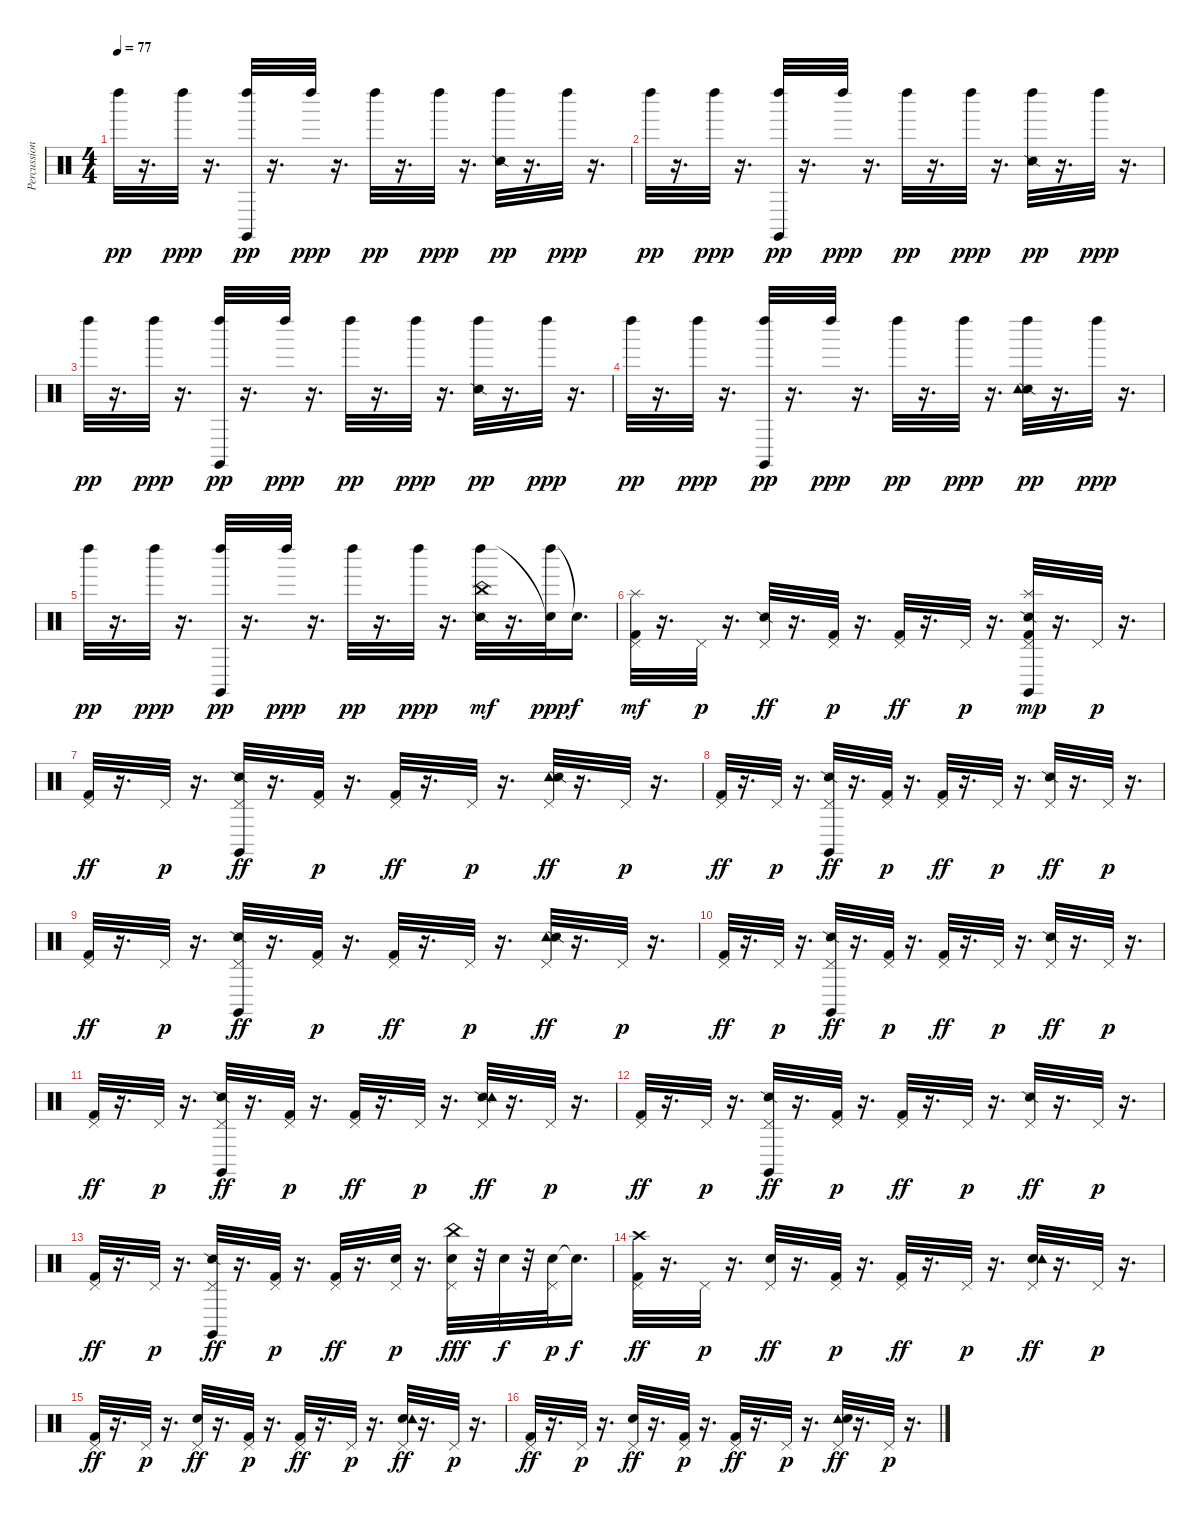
\track ("Percussion" "Percussion") {instrument percussion}
\staff {score}
\articulation defaults
\ts (4 4)
\tempo 77
\clef neutral
\ks c "Left Maraca (hit)".32{dy pp}
r.16{d} "Left Maraca (hit)".32{dy ppp} r.16{d} ("Left Maraca (hit)" "Claves (hit)").32{dy pp} r.16{d} "Left Maraca (hit)".32{dy ppp} r.16{d} "Left Maraca (hit)".32{dy pp} r.16{d} "Left Maraca (hit)".32{dy ppp} r.16{d} ("Left Maraca (hit)" "Snare (side stick) 2").32{dy pp} r.16{d} "Left Maraca (hit)".32{dy ppp} r.16{d} |
"Left Maraca (hit)".32{dy pp} r.16{d} "Left Maraca (hit)".32{dy ppp} r.16{d} ("Claves (hit)" "Left Maraca (hit)").32{dy pp} r.16{d} "Left Maraca (hit)".32{dy ppp} r.16{d} "Left Maraca (hit)".32{dy pp} r.16{d} "Left Maraca (hit)".32{dy ppp} r.16{d} ("Snare (side stick) 2" "Left Maraca (hit)").32{dy pp} r.16{d} "Left Maraca (hit)".32{dy ppp} r.16{d} |
"Left Maraca (hit)".32{dy pp} r.16{d} "Left Maraca (hit)".32{dy ppp} r.16{d} ("Claves (hit)" "Left Maraca (hit)").32{dy pp} r.16{d} "Left Maraca (hit)".32{dy ppp} r.16{d} "Left Maraca (hit)".32{dy pp} r.16{d} "Left Maraca (hit)".32{dy ppp} r.16{d} ("Left Maraca (hit)" "Snare (side stick) 2").32{dy pp} r.16{d} "Left Maraca (hit)".32{dy ppp} r.16{d} |
"Left Maraca (hit)".32{dy pp} r.16{d} "Left Maraca (hit)".32{dy ppp} r.16{d} ("Left Maraca (hit)" "Claves (hit)").32{dy pp} r.16{d} "Left Maraca (hit)".32{dy ppp} r.16{d} "Left Maraca (hit)".32{dy pp} r.16{d} "Left Maraca (hit)".32{dy ppp} r.16{d} ("Snare (side stick) 2" "Tambourine (hit)" "Left Maraca (hit)").32{dy pp} r.16{d} "Left Maraca (hit)".32{dy ppp} r.16{d} |
"Left Maraca (hit)".32{dy pp} r.16{d} "Left Maraca (hit)".32{dy ppp} r.16{d} ("Claves (hit)" "Left Maraca (hit)").32{dy pp} r.16{d} "Left Maraca (hit)".32{dy ppp} r.16{d} "Left Maraca (hit)".32{dy pp} r.16{d} "Left Maraca (hit)".32{dy ppp} r.16{d} ("Snare (side stick) 2" "Left Maraca (hit)" "China (hit)").32{dy mf} r.16{d} ("Left Maraca (hit)" "Snare (hit)"{t}).32{dy ppp} "Snare (hit)"{t}.16{d dy f} |
("Kick (hit) 2" "Pedal Hi-Hat (hit)" "Splash (hit)").32{dy mf} r.16{d} "Pedal Hi-Hat (hit)".32{dy p} r.16{d} ("Snare (side stick) 2" "Pedal Hi-Hat (hit)").32{dy ff} r.16{d} ("Kick (hit) 2" "Pedal Hi-Hat (hit)").32{dy p} r.16{d} ("Kick (hit) 2" "Pedal Hi-Hat (hit)").32{dy ff} r.16{d} "Pedal Hi-Hat (hit)".32{dy p} r.16{d} ("Snare (side stick) 2" "Pedal Hi-Hat (hit)" "Splash (hit)" "Claves (hit)" "Kick (hit) 2").32{dy mp} r.16{d} "Pedal Hi-Hat (hit)".32{dy p} r.16{d} |
("Kick (hit) 2" "Pedal Hi-Hat (hit)").32{dy ff} r.16{d} "Pedal Hi-Hat (hit)".32{dy p} r.16{d} ("Claves (hit)" "Snare (side stick) 2" "Pedal Hi-Hat (hit)").32{dy ff} r.16{d} ("Kick (hit) 2" "Pedal Hi-Hat (hit)").32{dy p} r.16{d} ("Kick (hit) 2" "Pedal Hi-Hat (hit)").32{dy ff} r.16{d} "Pedal Hi-Hat (hit)".32{dy p} r.16{d} ("Tambourine (hit)" "Snare (side stick) 2" "Pedal Hi-Hat (hit)").32{dy ff} r.16{d} "Pedal Hi-Hat (hit)".32{dy p} r.16{d} |
("Kick (hit) 2" "Pedal Hi-Hat (hit)").32{dy ff} r.16{d} "Pedal Hi-Hat (hit)".32{dy p} r.16{d} ("Snare (side stick) 2" "Claves (hit)" "Pedal Hi-Hat (hit)").32{dy ff} r.16{d} ("Kick (hit) 2" "Pedal Hi-Hat (hit)").32{dy p} r.16{d} ("Kick (hit) 2" "Pedal Hi-Hat (hit)").32{dy ff} r.16{d} "Pedal Hi-Hat (hit)".32{dy p} r.16{d} ("Snare (side stick) 2" "Pedal Hi-Hat (hit)").32{dy ff} r.16{d} "Pedal Hi-Hat (hit)".32{dy p} r.16{d} |
("Kick (hit) 2" "Pedal Hi-Hat (hit)").32{dy ff} r.16{d} "Pedal Hi-Hat (hit)".32{dy p} r.16{d} ("Claves (hit)" "Snare (side stick) 2" "Pedal Hi-Hat (hit)").32{dy ff} r.16{d} ("Kick (hit) 2" "Pedal Hi-Hat (hit)").32{dy p} r.16{d} ("Kick (hit) 2" "Pedal Hi-Hat (hit)").32{dy ff} r.16{d} "Pedal Hi-Hat (hit)".32{dy p} r.16{d} ("Tambourine (hit)" "Snare (side stick) 2" "Pedal Hi-Hat (hit)").32{dy ff} r.16{d} "Pedal Hi-Hat (hit)".32{dy p} r.16{d} |
("Kick (hit) 2" "Pedal Hi-Hat (hit)").32{dy ff} r.16{d} "Pedal Hi-Hat (hit)".32{dy p} r.16{d} ("Claves (hit)" "Snare (side stick) 2" "Pedal Hi-Hat (hit)").32{dy ff} r.16{d} ("Kick (hit) 2" "Pedal Hi-Hat (hit)").32{dy p} r.16{d} ("Kick (hit) 2" "Pedal Hi-Hat (hit)").32{dy ff} r.16{d} "Pedal Hi-Hat (hit)".32{dy p} r.16{d} ("Snare (side stick) 2" "Pedal Hi-Hat (hit)").32{dy ff} r.16{d} "Pedal Hi-Hat (hit)".32{dy p} r.16{d} |
("Kick (hit) 2" "Pedal Hi-Hat (hit)").32{dy ff} r.16{d} "Pedal Hi-Hat (hit)".32{dy p} r.16{d} ("Claves (hit)" "Snare (side stick) 2" "Pedal Hi-Hat (hit)").32{dy ff} r.16{d} ("Kick (hit) 2" "Pedal Hi-Hat (hit)").32{dy p} r.16{d} ("Kick (hit) 2" "Pedal Hi-Hat (hit)").32{dy ff} r.16{d} "Pedal Hi-Hat (hit)".32{dy p} r.16{d} ("Snare (side stick) 2" "Tambourine (hit)" "Pedal Hi-Hat (hit)").32{dy ff} r.16{d} "Pedal Hi-Hat (hit)".32{dy p} r.16{d} |
("Kick (hit) 2" "Pedal Hi-Hat (hit)").32{dy ff} r.16{d} "Pedal Hi-Hat (hit)".32{dy p} r.16{d} ("Claves (hit)" "Snare (side stick) 2" "Pedal Hi-Hat (hit)").32{dy ff} r.16{d} ("Kick (hit) 2" "Pedal Hi-Hat (hit)").32{dy p} r.16{d} ("Kick (hit) 2" "Pedal Hi-Hat (hit)").32{dy ff} r.16{d} "Pedal Hi-Hat (hit)".32{dy p} r.16{d} ("Snare (side stick) 2" "Pedal Hi-Hat (hit)").32{dy ff} r.16{d} "Pedal Hi-Hat (hit)".32{dy p} r.16{d} |
("Kick (hit) 2" "Pedal Hi-Hat (hit)").32{dy ff} r.16{d} "Pedal Hi-Hat (hit)".32{dy p} r.16{d} ("Snare (side stick) 2" "Claves (hit)" "Pedal Hi-Hat (hit)").32{dy ff} r.16{d} ("Kick (hit) 2" "Pedal Hi-Hat (hit)").32{dy p} r.16{d} ("Kick (hit) 2" "Pedal Hi-Hat (hit)").32{dy ff} r.16{d} ("Electric Snare (hit)" "Pedal Hi-Hat (hit)").32{dy p} r.16{d} ("Electric Snare (hit)" "Pedal Hi-Hat (hit)" "China (hit)").32{dy fff} r.32 "Electric Snare (hit)".32{dy f} r.32 ("Electric Snare (hit)" "Pedal Hi-Hat (hit)").32{dy p} "Snare (hit)"{t}.16{d dy f} |
("Kick (hit) 2" "Crash high (hit)" "Pedal Hi-Hat (hit)").32{dy ff} r.16{d} "Pedal Hi-Hat (hit)".32{dy p} r.16{d} ("Electric Snare (hit)" "Pedal Hi-Hat (hit)").32{dy ff} r.16{d} ("Kick (hit) 2" "Pedal Hi-Hat (hit)").32{dy p} r.16{d} ("Kick (hit) 2" "Pedal Hi-Hat (hit)").32{dy ff} r.16{d} "Pedal Hi-Hat (hit)".32{dy p} r.16{d} ("Electric Snare (hit)" "Tambourine (hit)" "Pedal Hi-Hat (hit)").32{dy ff} r.16{d} "Pedal Hi-Hat (hit)".32{dy p} r.16{d} |
("Kick (hit) 2" "Pedal Hi-Hat (hit)").32{dy ff} r.16{d} "Pedal Hi-Hat (hit)".32{dy p} r.16{d} ("Electric Snare (hit)" "Pedal Hi-Hat (hit)").32{dy ff} r.16{d} ("Kick (hit) 2" "Pedal Hi-Hat (hit)").32{dy p} r.16{d} ("Kick (hit) 2" "Pedal Hi-Hat (hit)").32{dy ff} r.16{d} "Pedal Hi-Hat (hit)".32{dy p} r.16{d} ("Electric Snare (hit)" "Tambourine (hit)" "Pedal Hi-Hat (hit)").32{dy ff} r.16{d} "Pedal Hi-Hat (hit)".32{dy p} r.16{d} |
("Kick (hit) 2" "Pedal Hi-Hat (hit)").32{dy ff} r.16{d} "Pedal Hi-Hat (hit)".32{dy p} r.16{d} ("Electric Snare (hit)" "Pedal Hi-Hat (hit)").32{dy ff} r.16{d} ("Kick (hit) 2" "Pedal Hi-Hat (hit)").32{dy p} r.16{d} ("Kick (hit) 2" "Pedal Hi-Hat (hit)").32{dy ff} r.16{d} "Pedal Hi-Hat (hit)".32{dy p} r.16{d} ("Tambourine (hit)" "Electric Snare (hit)" "Pedal Hi-Hat (hit)").32{dy ff} r.16{d} "Pedal Hi-Hat (hit)".32{dy p} r.16{d}
